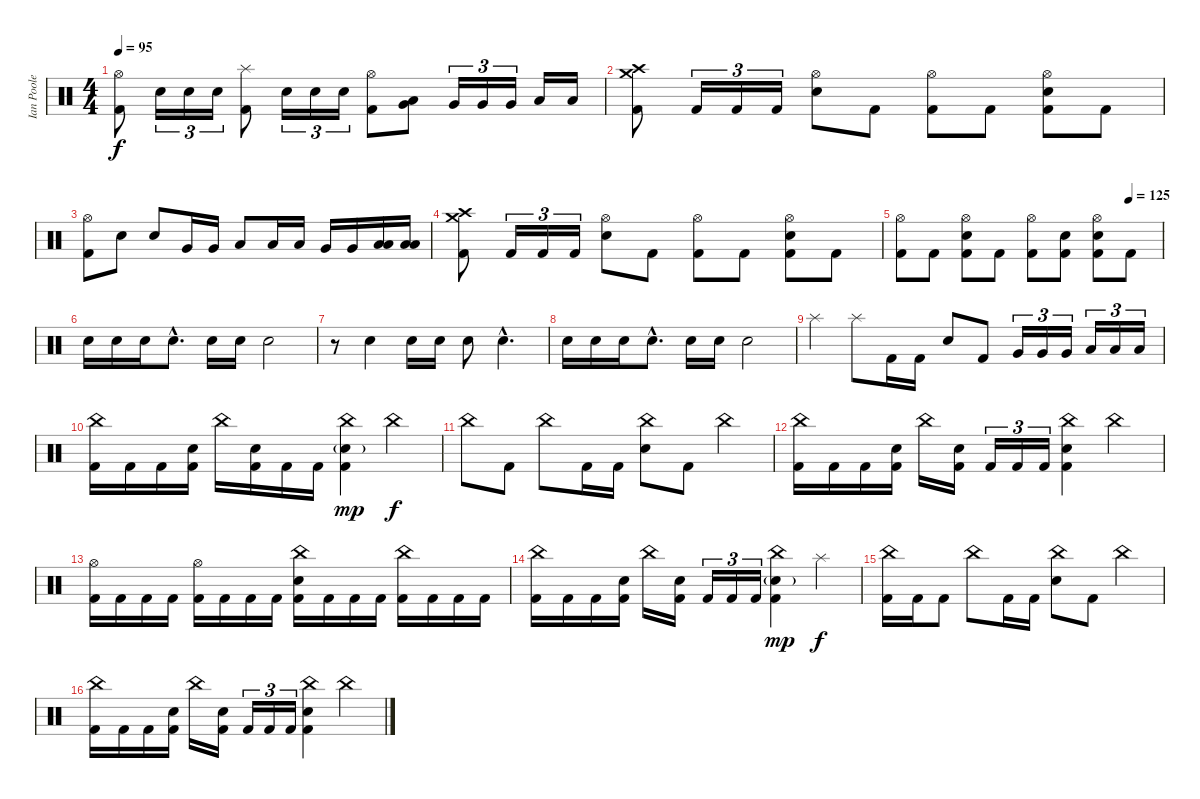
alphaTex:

\track ("Ian Poole" "Ian Poole") {instrument percussion}
\staff {score}
\articulation defaults
\ts (4 4)
\tempo 95
\clef neutral
\ks c
("Hi-Hat (open)" "Kick (hit) 2").8{dy f} "Electric Snare (hit)".16{tu (3 2)} "Electric Snare (hit)".16{tu (3 2)} "Electric Snare (hit)".16{tu (3 2)} ("Splash (hit)" "Kick (hit) 2").8 "Electric Snare (hit)".16{tu (3 2)} "Electric Snare (hit)".16{tu (3 2)} "Electric Snare (hit)".16{tu (3 2)} ("Hi-Hat (open)" "Kick (hit) 2").8 ("Low Floor Tom (hit)" "Very Low Tom (hit)").8 "Very Low Tom (hit)".16{tu (3 2)} "Very Low Tom (hit)".16{tu (3 2)} "Very Low Tom (hit)".16{tu (3 2)} "Low Floor Tom (hit)".16 "Low Floor Tom (hit)".16 |
("Crash medium (hit)" "Crash high (hit)" "Kick (hit) 2").8 "Kick (hit) 2".16{tu (3 2)} "Kick (hit) 2".16{tu (3 2)} "Kick (hit) 2".16{tu (3 2)} ("Hi-Hat (open)" "Electric Snare (hit)").8 "Kick (hit) 2".8 ("Hi-Hat (open)" "Kick (hit) 2").8 "Kick (hit) 2".8 ("Hi-Hat (open)" "Electric Snare (hit)" "Kick (hit) 2").8 "Kick (hit) 2".8 |
("Hi-Hat (open)" "Kick (hit) 2").8 "Electric Snare (hit)".8 "Electric Snare (hit)".8 "Very Low Tom (hit)".16 "Very Low Tom (hit)".16 "Low Floor Tom (hit)".8 "Low Tom (hit)".16 "Low Tom (hit)".16 "Very Low Tom (hit)".16 "Very Low Tom (hit)".16 ("Low Tom (hit)" "Low Floor Tom (hit)").16 ("Low Tom (hit)" "Low Floor Tom (hit)").16 |
("Crash medium (hit)" "Crash high (hit)" "Kick (hit) 2").8 "Kick (hit) 2".16{tu (3 2)} "Kick (hit) 2".16{tu (3 2)} "Kick (hit) 2".16{tu (3 2)} ("Hi-Hat (open)" "Electric Snare (hit)").8 "Kick (hit) 2".8 ("Hi-Hat (open)" "Kick (hit) 2").8 "Kick (hit) 2".8 ("Hi-Hat (open)" "Electric Snare (hit)" "Kick (hit) 2").8 "Kick (hit) 2".8 |
\tempo (125 0.875)
("Hi-Hat (open)" "Kick (hit) 2").8 "Kick (hit) 2".8 ("Hi-Hat (open)" "Electric Snare (hit)" "Kick (hit) 2").8 "Kick (hit) 2".8 ("Hi-Hat (open)" "Kick (hit) 2").8 ("Electric Snare (hit)" "Kick (hit) 2").8 ("Hi-Hat (open)" "Electric Snare (hit)" "Kick (hit) 2").8 "Kick (hit) 2".8 |
"Electric Snare (hit)".16 "Electric Snare (hit)".16 "Electric Snare (hit)".16 "Electric Snare (hit)"{hac}.8{d} "Electric Snare (hit)".16 "Electric Snare (hit)".16 "Electric Snare (hit)".2 |
r.8 "Electric Snare (hit)".4 "Electric Snare (hit)".16 "Electric Snare (hit)".16 "Electric Snare (hit)".8 "Electric Snare (hit)"{hac}.4{d} |
"Electric Snare (hit)".16 "Electric Snare (hit)".16 "Electric Snare (hit)".16 "Electric Snare (hit)"{hac}.8{d} "Electric Snare (hit)".16 "Electric Snare (hit)".16 "Electric Snare (hit)".2 |
"Splash (hit)".4 "Splash (hit)".8 "Kick (hit) 2".16 "Kick (hit) 2".16 "Electric Snare (hit)".8 "Kick (hit) 2".8 "Very Low Tom (hit)".16{tu (3 2)} "Very Low Tom (hit)".16{tu (3 2)} "Very Low Tom (hit)".16{tu (3 2)} "Low Floor Tom (hit)".16{tu (3 2)} "Low Floor Tom (hit)".16{tu (3 2)} "Low Floor Tom (hit)".16{tu (3 2)} |
("China (hit)" "Kick (hit) 2").16 "Kick (hit) 2".16 "Kick (hit) 2".16 ("Electric Snare (hit)" "Kick (hit) 2").16 "China (hit)".16 ("Electric Snare (hit)" "Kick (hit) 2").16 "Kick (hit) 2".16 "Kick (hit) 2".16 ("China (hit)" "Electric Snare (hit)"{g} "Kick (hit) 2").4{dy mp} "China (hit)".4{dy f} |
"China (hit)".8 "Kick (hit) 2".8 "China (hit)".8 "Kick (hit) 2".16 "Kick (hit) 2".16 ("China (hit)" "Electric Snare (hit)").8 "Kick (hit) 2".8 "China (hit)".4 |
("China (hit)" "Kick (hit) 2").16 "Kick (hit) 2".16 "Kick (hit) 2".16 ("Electric Snare (hit)" "Kick (hit) 2").16 "China (hit)".16 ("Electric Snare (hit)" "Kick (hit) 2").16 "Kick (hit) 2".16{tu (3 2)} "Kick (hit) 2".16{tu (3 2)} "Kick (hit) 2".16{tu (3 2)} ("China (hit)" "Electric Snare (hit)" "Kick (hit) 2").4 "China (hit)".4 |
("Hi-Hat (open)" "Kick (hit) 2").16 "Kick (hit) 2".16 "Kick (hit) 2".16 "Kick (hit) 2".16 ("Hi-Hat (open)" "Kick (hit) 2").16 "Kick (hit) 2".16 "Kick (hit) 2".16 "Kick (hit) 2".16 ("China (hit)" "Electric Snare (hit)" "Kick (hit) 2").16 "Kick (hit) 2".16 "Kick (hit) 2".16 "Kick (hit) 2".16 ("China (hit)" "Kick (hit) 2").16 "Kick (hit) 2".16 "Kick (hit) 2".16 "Kick (hit) 2".16 |
("China (hit)" "Kick (hit) 2").16 "Kick (hit) 2".16 "Kick (hit) 2".16 ("Electric Snare (hit)" "Kick (hit) 2").16 "China (hit)".16 ("Electric Snare (hit)" "Kick (hit) 2").16 "Kick (hit) 2".16{tu (3 2)} "Kick (hit) 2".16{tu (3 2)} "Kick (hit) 2".16{tu (3 2)} ("China (hit)" "Electric Snare (hit)"{g} "Kick (hit) 2").4{dy mp} "Splash (hit)".4{dy f} |
("China (hit)" "Kick (hit) 2").16 "Kick (hit) 2".16 "Kick (hit) 2".8 "China (hit)".8 "Kick (hit) 2".16 "Kick (hit) 2".16 ("China (hit)" "Electric Snare (hit)").8 "Kick (hit) 2".8 "China (hit)".4 |
("China (hit)" "Kick (hit) 2").16 "Kick (hit) 2".16 "Kick (hit) 2".16 ("Electric Snare (hit)" "Kick (hit) 2").16 "China (hit)".16 ("Electric Snare (hit)" "Kick (hit) 2").16 "Kick (hit) 2".16{tu (3 2)} "Kick (hit) 2".16{tu (3 2)} "Kick (hit) 2".16{tu (3 2)} ("China (hit)" "Electric Snare (hit)" "Kick (hit) 2").4 "China (hit)".4
